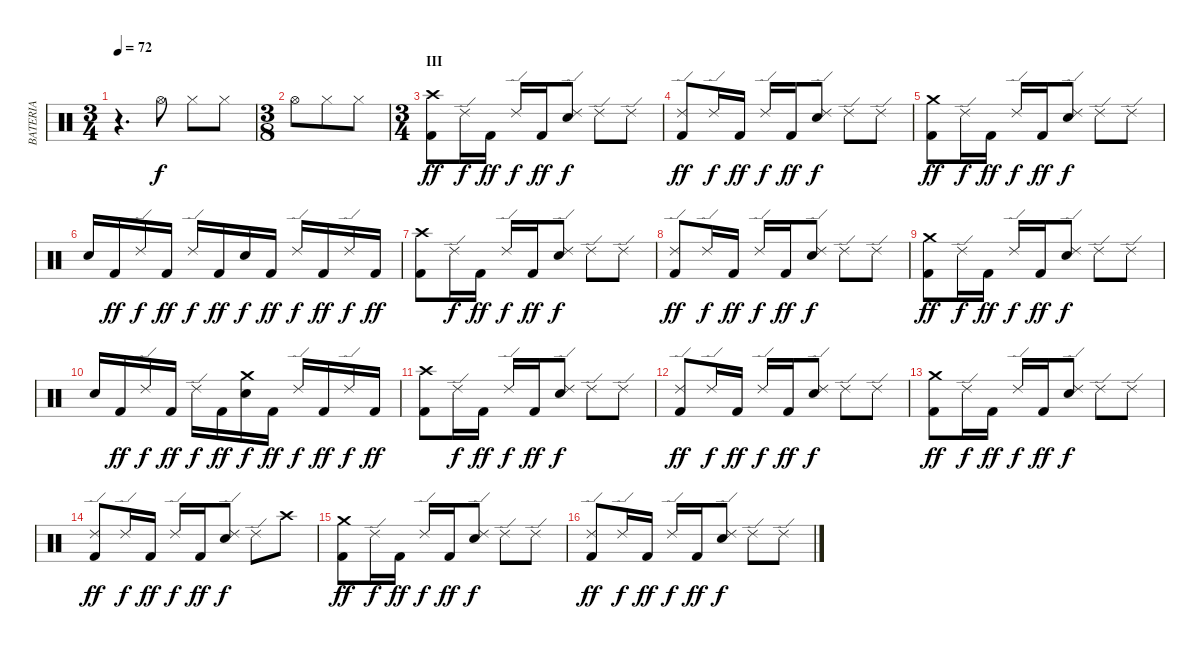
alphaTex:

\track ("BATERIA" "BATERIA") {instrument percussion}
\staff {score}
\articulation defaults
\ts (3 4)
\tempo 72
\clef neutral
\ks c
r.4{d dy f} "Hi-Hat (open)".8 "Hi-Hat (closed)".8 "Hi-Hat (closed)".8 |
\ts (3 8)
"Hi-Hat (open)".8 "Hi-Hat (closed)".8 "Hi-Hat (closed)".8 |
\ts (3 4)
\section ("" "III")
("Crash high (hit)" "Kick (hit) 2").8{dy ff} "Ride (edge) 2".16{dy f} "Kick (hit) 2".16{dy ff} "Ride (edge) 2".16{dy f} "Kick (hit) 2".16{dy ff} ("Ride (edge) 2" "Snare (hit) 2").8{dy f} "Ride (edge) 2".8 "Ride (edge) 2".8 |
("Ride (edge) 2" "Kick (hit) 2").8{dy ff} "Ride (edge) 2".16{dy f} "Kick (hit) 2".16{dy ff} "Ride (edge) 2".16{dy f} "Kick (hit) 2".16{dy ff} ("Ride (edge) 2" "Snare (hit) 2").8{dy f} "Ride (edge) 2".8 "Ride (edge) 2".8 |
("Crash medium (hit)" "Kick (hit) 2").8{dy ff} "Ride (edge) 2".16{dy f} "Kick (hit) 2".16{dy ff} "Ride (edge) 2".16{dy f} "Kick (hit) 2".16{dy ff} ("Ride (edge) 2" "Snare (hit) 2").8{dy f} "Ride (edge) 2".8 "Ride (edge) 2".8 |
"Snare (hit) 2".16 "Kick (hit) 2".16{dy ff} "Ride (edge) 2".16{dy f} "Kick (hit) 2".16{dy ff} "Ride (edge) 2".16{dy f} "Kick (hit) 2".16{dy ff} "Snare (hit) 2".16{dy f} "Kick (hit) 2".16{dy ff} "Ride (edge) 2".16{dy f} "Kick (hit) 2".16{dy ff} "Ride (edge) 2".16{dy f} "Kick (hit) 2".16{dy ff} |
("Crash high (hit)" "Kick (hit) 2").8 "Ride (edge) 2".16{dy f} "Kick (hit) 2".16{dy ff} "Ride (edge) 2".16{dy f} "Kick (hit) 2".16{dy ff} ("Ride (edge) 2" "Snare (hit) 2").8{dy f} "Ride (edge) 2".8 "Ride (edge) 2".8 |
("Ride (edge) 2" "Kick (hit) 2").8{dy ff} "Ride (edge) 2".16{dy f} "Kick (hit) 2".16{dy ff} "Ride (edge) 2".16{dy f} "Kick (hit) 2".16{dy ff} ("Ride (edge) 2" "Snare (hit) 2").8{dy f} "Ride (edge) 2".8 "Ride (edge) 2".8 |
("Crash medium (hit)" "Kick (hit) 2").8{dy ff} "Ride (edge) 2".16{dy f} "Kick (hit) 2".16{dy ff} "Ride (edge) 2".16{dy f} "Kick (hit) 2".16{dy ff} ("Ride (edge) 2" "Snare (hit) 2").8{dy f} "Ride (edge) 2".8 "Ride (edge) 2".8 |
"Snare (hit) 2".16 "Kick (hit) 2".16{dy ff} "Ride (edge) 2".16{dy f} "Kick (hit) 2".16{dy ff} "Ride (edge) 2".16{dy f} "Kick (hit) 2".16{dy ff} ("Crash medium (hit)" "Snare (hit) 2").16{dy f} "Kick (hit) 2".16{dy ff} "Ride (edge) 2".16{dy f} "Kick (hit) 2".16{dy ff} "Ride (edge) 2".16{dy f} "Kick (hit) 2".16{dy ff} |
("Crash high (hit)" "Kick (hit) 2").8 "Ride (edge) 2".16{dy f} "Kick (hit) 2".16{dy ff} "Ride (edge) 2".16{dy f} "Kick (hit) 2".16{dy ff} ("Ride (edge) 2" "Snare (hit) 2").8{dy f} "Ride (edge) 2".8 "Ride (edge) 2".8 |
("Ride (edge) 2" "Kick (hit) 2").8{dy ff} "Ride (edge) 2".16{dy f} "Kick (hit) 2".16{dy ff} "Ride (edge) 2".16{dy f} "Kick (hit) 2".16{dy ff} ("Ride (edge) 2" "Snare (hit) 2").8{dy f} "Ride (edge) 2".8 "Ride (edge) 2".8 |
("Crash medium (hit)" "Kick (hit) 2").8{dy ff} "Ride (edge) 2".16{dy f} "Kick (hit) 2".16{dy ff} "Ride (edge) 2".16{dy f} "Kick (hit) 2".16{dy ff} ("Ride (edge) 2" "Snare (hit) 2").8{dy f} "Ride (edge) 2".8 "Ride (edge) 2".8 |
("Ride (edge) 2" "Kick (hit) 2").8{dy ff} "Ride (edge) 2".16{dy f} "Kick (hit) 2".16{dy ff} "Ride (edge) 2".16{dy f} "Kick (hit) 2".16{dy ff} ("Ride (edge) 2" "Snare (hit) 2").8{dy f} "Ride (edge) 2".8 "Crash high (hit)".8 |
("Crash medium (hit)" "Kick (hit) 2").8{dy ff} "Ride (edge) 2".16{dy f} "Kick (hit) 2".16{dy ff} "Ride (edge) 2".16{dy f} "Kick (hit) 2".16{dy ff} ("Ride (edge) 2" "Snare (hit) 2").8{dy f} "Ride (edge) 2".8 "Ride (edge) 2".8 |
("Ride (edge) 2" "Kick (hit) 2").8{dy ff} "Ride (edge) 2".16{dy f} "Kick (hit) 2".16{dy ff} "Ride (edge) 2".16{dy f} "Kick (hit) 2".16{dy ff} ("Ride (edge) 2" "Snare (hit) 2").8{dy f} "Ride (edge) 2".8 "Ride (edge) 2".8
